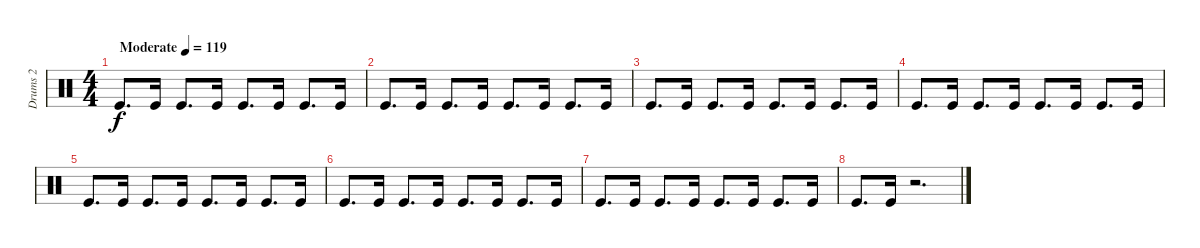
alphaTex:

\track ("Drums 2" "Drums 2") {instrument percussion}
\staff {score}
\articulation defaults
\ts (4 4)
\tempo (119 "Moderate")
\clef neutral
\ks c "Kick (hit)".8{d dy f volume 16} "Kick (hit)".16 "Kick (hit)".8{d} "Kick (hit)".16 "Kick (hit)".8{d} "Kick (hit)".16 "Kick (hit)".8{d} "Kick (hit)".16
|
"Kick (hit)".8{d} "Kick (hit)".16 "Kick (hit)".8{d} "Kick (hit)".16 "Kick (hit)".8{d} "Kick (hit)".16 "Kick (hit)".8{d} "Kick (hit)".16 |
"Kick (hit)".8{d} "Kick (hit)".16 "Kick (hit)".8{d} "Kick (hit)".16 "Kick (hit)".8{d} "Kick (hit)".16 "Kick (hit)".8{d} "Kick (hit)".16 |
"Kick (hit)".8{d} "Kick (hit)".16 "Kick (hit)".8{d} "Kick (hit)".16 "Kick (hit)".8{d} "Kick (hit)".16 "Kick (hit)".8{d} "Kick (hit)".16 |
"Kick (hit)".8{d} "Kick (hit)".16 "Kick (hit)".8{d} "Kick (hit)".16 "Kick (hit)".8{d} "Kick (hit)".16 "Kick (hit)".8{d} "Kick (hit)".16 |
"Kick (hit)".8{d} "Kick (hit)".16 "Kick (hit)".8{d} "Kick (hit)".16 "Kick (hit)".8{d} "Kick (hit)".16 "Kick (hit)".8{d} "Kick (hit)".16 |
"Kick (hit)".8{d} "Kick (hit)".16 "Kick (hit)".8{d} "Kick (hit)".16 "Kick (hit)".8{d} "Kick (hit)".16 "Kick (hit)".8{d} "Kick (hit)".16 |
"Kick (hit)".8{d} "Kick (hit)".16 r.2{d}
